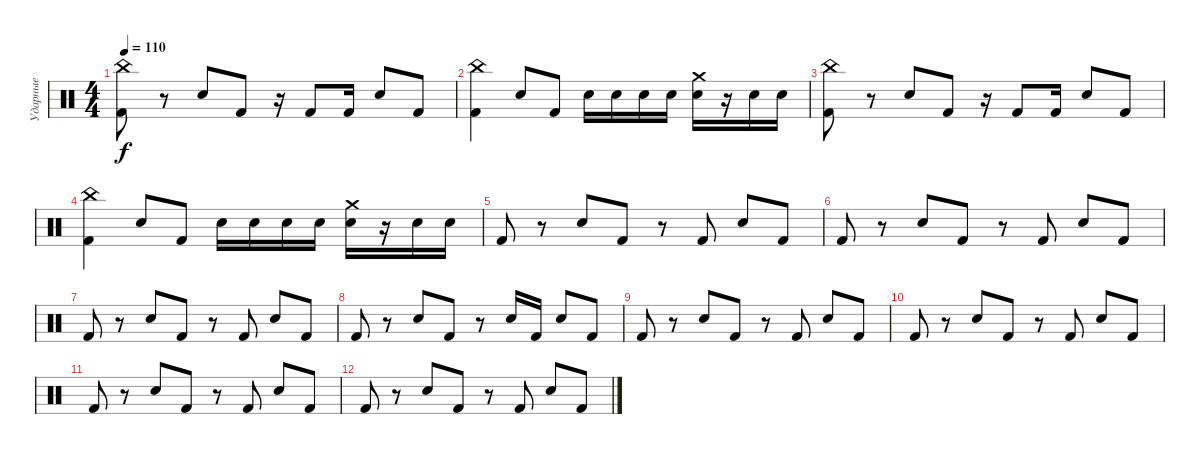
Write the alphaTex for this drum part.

\track ("Ударные" "Ударные") {instrument percussion}
\staff {score}
\articulation defaults
\ts (4 4)
\tempo 110
\clef neutral
\ks c
("Kick (hit) 2" "China (hit)").8{dy f} r.8 "Snare (hit) 2".8 "Kick (hit) 2".8 r.16 "Kick (hit) 2".8 "Kick (hit) 2".16 "Snare (hit) 2".8 "Kick (hit) 2".8 |
("Kick (hit) 2" "China (hit)").4 "Snare (hit) 2".8 "Kick (hit) 2".8 "Snare (hit) 2".16 "Snare (hit) 2".16 "Snare (hit) 2".16 "Snare (hit) 2".16 ("Snare (hit) 2" "Crash medium (hit)").16 r.16 "Snare (hit) 2".16 "Snare (hit) 2".16 |
("Kick (hit) 2" "China (hit)").8 r.8 "Snare (hit) 2".8 "Kick (hit) 2".8 r.16 "Kick (hit) 2".8 "Kick (hit) 2".16 "Snare (hit) 2".8 "Kick (hit) 2".8 |
("Kick (hit) 2" "China (hit)").4 "Snare (hit) 2".8 "Kick (hit) 2".8 "Snare (hit) 2".16 "Snare (hit) 2".16 "Snare (hit) 2".16 "Snare (hit) 2".16 ("Snare (hit) 2" "Crash medium (hit)").16 r.16 "Snare (hit) 2".16 "Snare (hit) 2".16 |
"Kick (hit) 2".8 r.8 "Snare (hit) 2".8 "Kick (hit) 2".8 r.8 "Kick (hit) 2".8 "Snare (hit) 2".8 "Kick (hit) 2".8 |
"Kick (hit) 2".8 r.8 "Snare (hit) 2".8 "Kick (hit) 2".8 r.8 "Kick (hit) 2".8 "Snare (hit) 2".8 "Kick (hit) 2".8 |
"Kick (hit) 2".8 r.8 "Snare (hit) 2".8 "Kick (hit) 2".8 r.8 "Kick (hit) 2".8 "Snare (hit) 2".8 "Kick (hit) 2".8 |
"Kick (hit) 2".8 r.8 "Snare (hit) 2".8 "Kick (hit) 2".8 r.8 "Snare (hit) 2".16 "Kick (hit) 2".16 "Snare (hit) 2".8 "Kick (hit) 2".8 |
"Kick (hit) 2".8 r.8 "Snare (hit) 2".8 "Kick (hit) 2".8 r.8 "Kick (hit) 2".8 "Snare (hit) 2".8 "Kick (hit) 2".8 |
"Kick (hit) 2".8 r.8 "Snare (hit) 2".8 "Kick (hit) 2".8 r.8 "Kick (hit) 2".8 "Snare (hit) 2".8 "Kick (hit) 2".8 |
"Kick (hit) 2".8 r.8 "Snare (hit) 2".8 "Kick (hit) 2".8 r.8 "Kick (hit) 2".8 "Snare (hit) 2".8 "Kick (hit) 2".8 |
"Kick (hit) 2".8 r.8 "Snare (hit) 2".8 "Kick (hit) 2".8 r.8 "Kick (hit) 2".8 "Snare (hit) 2".8 "Kick (hit) 2".8
